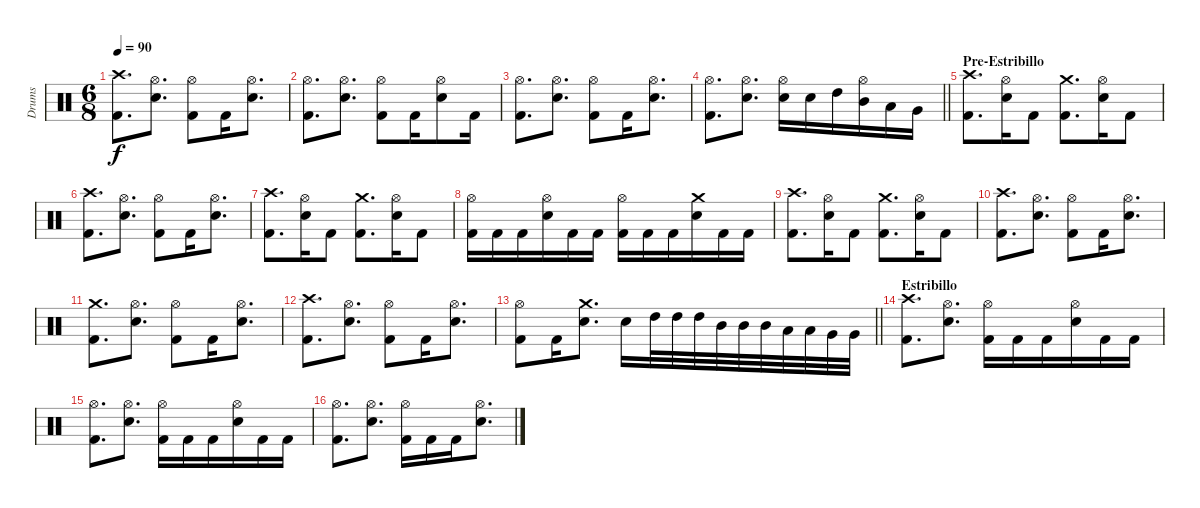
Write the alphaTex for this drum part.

\track ("Drums" "Drums") {instrument percussion}
\staff {score}
\articulation defaults
\ts (6 8)
\tempo 90
\clef neutral
\ks c
("Kick (hit) 2" "Crash high (hit)").8{d dy f} ("Electric Snare (hit)" "Hi-Hat (open)").8{d} ("Kick (hit) 2" "Hi-Hat (open)").8 "Kick (hit) 2".16 ("Electric Snare (hit)" "Hi-Hat (open)").8{d} |
("Kick (hit) 2" "Hi-Hat (open)").8{d} ("Electric Snare (hit)" "Hi-Hat (open)").8{d} ("Kick (hit) 2" "Hi-Hat (open)").8 "Kick (hit) 2".16 ("Electric Snare (hit)" "Hi-Hat (open)").8 "Kick (hit) 2".16 |
("Kick (hit) 2" "Hi-Hat (open)").8{d} ("Electric Snare (hit)" "Hi-Hat (open)").8{d} ("Kick (hit) 2" "Hi-Hat (open)").8 "Kick (hit) 2".16 ("Electric Snare (hit)" "Hi-Hat (open)").8{d} |
\barLineRight lightlight
("Kick (hit) 2" "Hi-Hat (open)").8{d} ("Electric Snare (hit)" "Hi-Hat (open)").8{d} ("Electric Snare (hit)" "Hi-Hat (open)").16 "Electric Snare (hit)".16 "High Tom (hit)".16 ("Mid Tom (hit)" "Hi-Hat (open)").16 "Low Tom (hit)".16 "Very Low Tom (hit)".16 |
\section ("" "Pre-Estribillo")
("Kick (hit) 2" "Crash high (hit)").8{d} ("Electric Snare (hit)" "Hi-Hat (open)").16 "Kick (hit) 2".8 ("Kick (hit) 2" "Crash medium (hit)").8{d} ("Electric Snare (hit)" "Hi-Hat (open)").16 "Kick (hit) 2".8 |
("Kick (hit) 2" "Crash high (hit)").8{d} ("Electric Snare (hit)" "Hi-Hat (open)").8{d} ("Kick (hit) 2" "Hi-Hat (open)").8 "Kick (hit) 2".16 ("Electric Snare (hit)" "Hi-Hat (open)").8{d} |
("Kick (hit) 2" "Crash high (hit)").8{d} ("Electric Snare (hit)" "Hi-Hat (open)").16 "Kick (hit) 2".8 ("Kick (hit) 2" "Crash medium (hit)").8{d} ("Electric Snare (hit)" "Hi-Hat (open)").16 "Kick (hit) 2".8 |
("Kick (hit) 2" "Hi-Hat (open)").16 "Kick (hit) 2".16 "Kick (hit) 2".16 ("Electric Snare (hit)" "Hi-Hat (open)").16 "Kick (hit) 2".16 "Kick (hit) 2".16 ("Kick (hit) 2" "Hi-Hat (open)").16 "Kick (hit) 2".16 "Kick (hit) 2".16 ("Electric Snare (hit)" "Crash medium (hit)").16 "Kick (hit) 2".16 "Kick (hit) 2".16 |
("Kick (hit) 2" "Crash high (hit)").8{d} ("Electric Snare (hit)" "Hi-Hat (open)").16 "Kick (hit) 2".8 ("Kick (hit) 2" "Crash medium (hit)").8{d} ("Electric Snare (hit)" "Hi-Hat (open)").16 "Kick (hit) 2".8 |
("Kick (hit) 2" "Crash high (hit)").8{d} ("Electric Snare (hit)" "Hi-Hat (open)").8{d} ("Kick (hit) 2" "Hi-Hat (open)").8 "Kick (hit) 2".16 ("Electric Snare (hit)" "Hi-Hat (open)").8{d} |
("Kick (hit) 2" "Crash medium (hit)").8{d} ("Electric Snare (hit)" "Hi-Hat (open)").8{d} ("Kick (hit) 2" "Hi-Hat (open)").8 "Kick (hit) 2".16 ("Electric Snare (hit)" "Hi-Hat (open)").8{d} |
("Kick (hit) 2" "Crash high (hit)").8{d} ("Electric Snare (hit)" "Hi-Hat (open)").8{d} ("Kick (hit) 2" "Hi-Hat (open)").8 "Kick (hit) 2".16 ("Electric Snare (hit)" "Hi-Hat (open)").8{d} |
\barLineRight lightlight
("Kick (hit) 2" "Hi-Hat (open)").8 "Kick (hit) 2".16 ("Electric Snare (hit)" "Crash medium (hit)").8{d} "Electric Snare (hit)".16 "High Tom (hit)".32 "High Tom (hit)".32 "High Tom (hit)".32 "Mid Tom (hit)".32 "Mid Tom (hit)".32 "Mid Tom (hit)".32 "Low Tom (hit)".32 "Low Tom (hit)".32 "Very Low Tom (hit)".32 "Very Low Tom (hit)".32 |
\section ("" "Estribillo")
("Kick (hit) 2" "Crash high (hit)").8{d} ("Electric Snare (hit)" "Hi-Hat (open)").8{d} ("Kick (hit) 2" "Hi-Hat (open)").16 "Kick (hit) 2".16 "Kick (hit) 2".16 ("Electric Snare (hit)" "Hi-Hat (open)").16 "Kick (hit) 2".16 "Kick (hit) 2".16 |
("Kick (hit) 2" "Hi-Hat (open)").8{d} ("Electric Snare (hit)" "Hi-Hat (open)").8{d} ("Kick (hit) 2" "Hi-Hat (open)").16 "Kick (hit) 2".16 "Kick (hit) 2".16 ("Electric Snare (hit)" "Hi-Hat (open)").16 "Kick (hit) 2".16 "Kick (hit) 2".16 |
("Kick (hit) 2" "Hi-Hat (open)").8{d} ("Electric Snare (hit)" "Hi-Hat (open)").8{d} ("Kick (hit) 2" "Hi-Hat (open)").16 "Kick (hit) 2".16 "Kick (hit) 2".16 ("Electric Snare (hit)" "Hi-Hat (open)").8{d}
